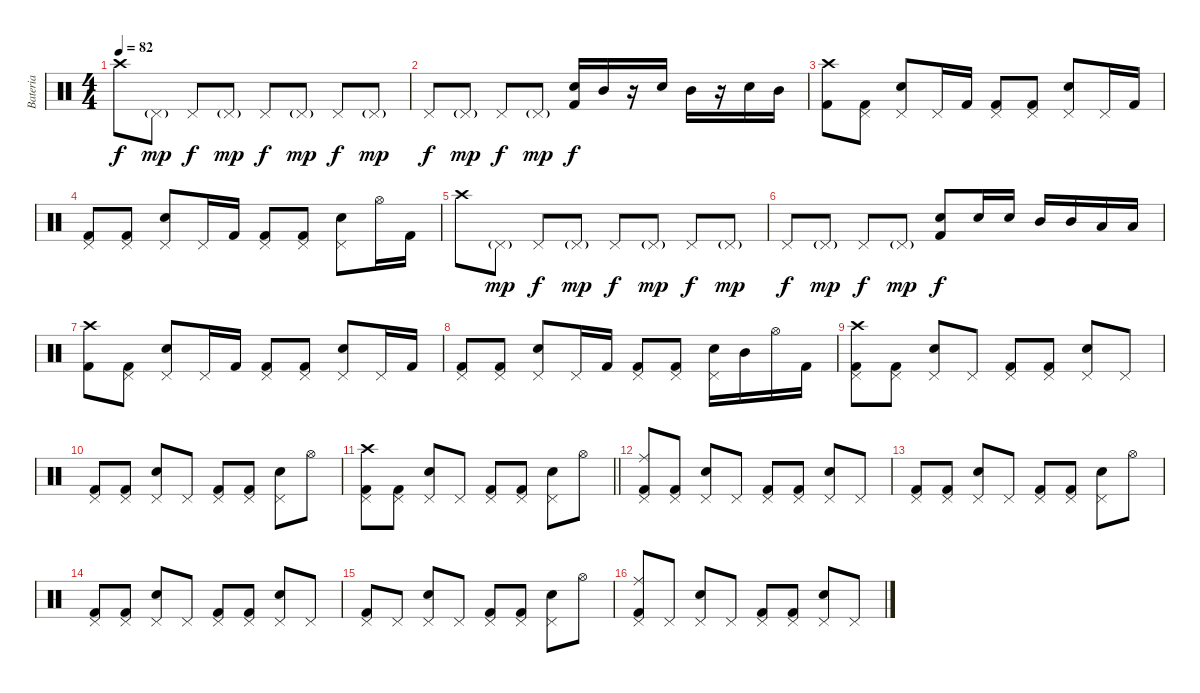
\track ("Bateria" "Bateria") {instrument percussion}
\staff {score}
\articulation defaults
\ts (4 4)
\tempo 82
\clef neutral
\ks c "Crash high (hit)".8{dy f} "Pedal Hi-Hat (hit)"{g}.8{dy mp} "Pedal Hi-Hat (hit)".8{dy f} "Pedal Hi-Hat (hit)"{g}.8{dy mp} "Pedal Hi-Hat (hit)".8{dy f} "Pedal Hi-Hat (hit)"{g}.8{dy mp} "Pedal Hi-Hat (hit)".8{dy f} "Pedal Hi-Hat (hit)"{g}.8{dy mp}
|
"Pedal Hi-Hat (hit)".8{dy f} "Pedal Hi-Hat (hit)"{g}.8{dy mp} "Pedal Hi-Hat (hit)".8{dy f} "Pedal Hi-Hat (hit)"{g}.8{dy mp} ("Snare (hit) 2" "Kick (hit) 2").16{dy f} "Mid Tom (hit)".16 r.16 "Snare (hit) 2".16 "Mid Tom (hit)".16 r.16 "Snare (hit) 2".16 "Mid Tom (hit)".16 |
("Crash high (hit)" "Kick (hit) 2").8 ("Pedal Hi-Hat (hit)" "Kick (hit) 2").8 ("Pedal Hi-Hat (hit)" "Snare (hit) 2").8 "Pedal Hi-Hat (hit)".16 "Kick (hit) 2".16 ("Pedal Hi-Hat (hit)" "Kick (hit) 2").8 ("Pedal Hi-Hat (hit)" "Kick (hit) 2").8 ("Pedal Hi-Hat (hit)" "Snare (hit) 2").8 "Pedal Hi-Hat (hit)".16 "Kick (hit) 2".16 |
("Pedal Hi-Hat (hit)" "Kick (hit) 2").8 ("Pedal Hi-Hat (hit)" "Kick (hit) 2").8 ("Pedal Hi-Hat (hit)" "Snare (hit) 2").8 "Pedal Hi-Hat (hit)".16 "Kick (hit) 2".16 ("Pedal Hi-Hat (hit)" "Kick (hit) 2").8 ("Pedal Hi-Hat (hit)" "Kick (hit) 2").8 ("Pedal Hi-Hat (hit)" "Snare (hit) 2").8 "Hi-Hat (open)".16 "Kick (hit) 2".16 |
"Crash high (hit)".8 "Pedal Hi-Hat (hit)"{g}.8{dy mp} "Pedal Hi-Hat (hit)".8{dy f} "Pedal Hi-Hat (hit)"{g}.8{dy mp} "Pedal Hi-Hat (hit)".8{dy f} "Pedal Hi-Hat (hit)"{g}.8{dy mp} "Pedal Hi-Hat (hit)".8{dy f} "Pedal Hi-Hat (hit)"{g}.8{dy mp} |
"Pedal Hi-Hat (hit)".8{dy f} "Pedal Hi-Hat (hit)"{g}.8{dy mp} "Pedal Hi-Hat (hit)".8{dy f} "Pedal Hi-Hat (hit)"{g}.8{dy mp} ("Snare (hit) 2" "Kick (hit) 2").8{dy f} "Snare (hit) 2".16 "Snare (hit) 2".16 "Mid Tom (hit)".16 "Mid Tom (hit)".16 "Low Tom (hit)".16 "Low Tom (hit)".16 |
("Crash high (hit)" "Kick (hit) 2").8 ("Pedal Hi-Hat (hit)" "Kick (hit) 2").8 ("Pedal Hi-Hat (hit)" "Snare (hit) 2").8 "Pedal Hi-Hat (hit)".16 "Kick (hit) 2".16 ("Pedal Hi-Hat (hit)" "Kick (hit) 2").8 ("Pedal Hi-Hat (hit)" "Kick (hit) 2").8 ("Pedal Hi-Hat (hit)" "Snare (hit) 2").8 "Pedal Hi-Hat (hit)".16 "Kick (hit) 2".16 |
("Pedal Hi-Hat (hit)" "Kick (hit) 2").8 ("Pedal Hi-Hat (hit)" "Kick (hit) 2").8 ("Pedal Hi-Hat (hit)" "Snare (hit) 2").8 "Pedal Hi-Hat (hit)".16 "Kick (hit) 2".16 ("Pedal Hi-Hat (hit)" "Kick (hit) 2").8 ("Pedal Hi-Hat (hit)" "Kick (hit) 2").8 ("Pedal Hi-Hat (hit)" "Snare (hit) 2").16 "Mid Tom (hit)".16 "Hi-Hat (open)".16 "Kick (hit) 2".16 |
("Crash high (hit)" "Pedal Hi-Hat (hit)" "Kick (hit) 2").8 ("Pedal Hi-Hat (hit)" "Kick (hit) 2").8 ("Pedal Hi-Hat (hit)" "Snare (hit) 2").8 "Pedal Hi-Hat (hit)".8 ("Pedal Hi-Hat (hit)" "Kick (hit) 2").8 ("Pedal Hi-Hat (hit)" "Kick (hit) 2").8 ("Pedal Hi-Hat (hit)" "Snare (hit) 2").8 "Pedal Hi-Hat (hit)".8 |
("Pedal Hi-Hat (hit)" "Kick (hit) 2").8 ("Pedal Hi-Hat (hit)" "Kick (hit) 2").8 ("Pedal Hi-Hat (hit)" "Snare (hit) 2").8 "Pedal Hi-Hat (hit)".8 ("Pedal Hi-Hat (hit)" "Kick (hit) 2").8 ("Pedal Hi-Hat (hit)" "Kick (hit) 2").8 ("Pedal Hi-Hat (hit)" "Snare (hit) 2").8 "Hi-Hat (open)".8 |
\barLineRight lightlight
("Crash high (hit)" "Pedal Hi-Hat (hit)" "Kick (hit) 2").8 ("Pedal Hi-Hat (hit)" "Kick (hit) 2").8 ("Pedal Hi-Hat (hit)" "Snare (hit) 2").8 "Pedal Hi-Hat (hit)".8 ("Pedal Hi-Hat (hit)" "Kick (hit) 2").8 ("Pedal Hi-Hat (hit)" "Kick (hit) 2").8 ("Pedal Hi-Hat (hit)" "Snare (hit) 2").8 "Hi-Hat (open)".8 |
("Ride (middle)" "Pedal Hi-Hat (hit)" "Kick (hit) 2").8 ("Pedal Hi-Hat (hit)" "Kick (hit) 2").8 ("Pedal Hi-Hat (hit)" "Snare (hit) 2").8 "Pedal Hi-Hat (hit)".8 ("Pedal Hi-Hat (hit)" "Kick (hit) 2").8 ("Pedal Hi-Hat (hit)" "Kick (hit) 2").8 ("Pedal Hi-Hat (hit)" "Snare (hit) 2").8 "Pedal Hi-Hat (hit)".8 |
("Pedal Hi-Hat (hit)" "Kick (hit) 2").8 ("Pedal Hi-Hat (hit)" "Kick (hit) 2").8 ("Pedal Hi-Hat (hit)" "Snare (hit) 2").8 "Pedal Hi-Hat (hit)".8 ("Pedal Hi-Hat (hit)" "Kick (hit) 2").8 ("Pedal Hi-Hat (hit)" "Kick (hit) 2").8 ("Pedal Hi-Hat (hit)" "Snare (hit) 2").8 "Hi-Hat (open)".8 |
("Pedal Hi-Hat (hit)" "Kick (hit) 2").8 ("Pedal Hi-Hat (hit)" "Kick (hit) 2").8 ("Pedal Hi-Hat (hit)" "Snare (hit) 2").8 "Pedal Hi-Hat (hit)".8 ("Pedal Hi-Hat (hit)" "Kick (hit) 2").8 ("Pedal Hi-Hat (hit)" "Kick (hit) 2").8 ("Pedal Hi-Hat (hit)" "Snare (hit) 2").8 "Pedal Hi-Hat (hit)".8 |
("Pedal Hi-Hat (hit)" "Kick (hit) 2").8 "Pedal Hi-Hat (hit)".8 ("Pedal Hi-Hat (hit)" "Snare (hit) 2").8 "Pedal Hi-Hat (hit)".8 ("Pedal Hi-Hat (hit)" "Kick (hit) 2").8 ("Pedal Hi-Hat (hit)" "Kick (hit) 2").8 ("Pedal Hi-Hat (hit)" "Snare (hit) 2").8 "Hi-Hat (open)".8 |
("Ride (middle)" "Pedal Hi-Hat (hit)" "Kick (hit) 2").8 "Pedal Hi-Hat (hit)".8 ("Pedal Hi-Hat (hit)" "Snare (hit) 2").8 "Pedal Hi-Hat (hit)".8 ("Pedal Hi-Hat (hit)" "Kick (hit) 2").8 ("Pedal Hi-Hat (hit)" "Kick (hit) 2").8 ("Pedal Hi-Hat (hit)" "Snare (hit) 2").8 "Pedal Hi-Hat (hit)".8
